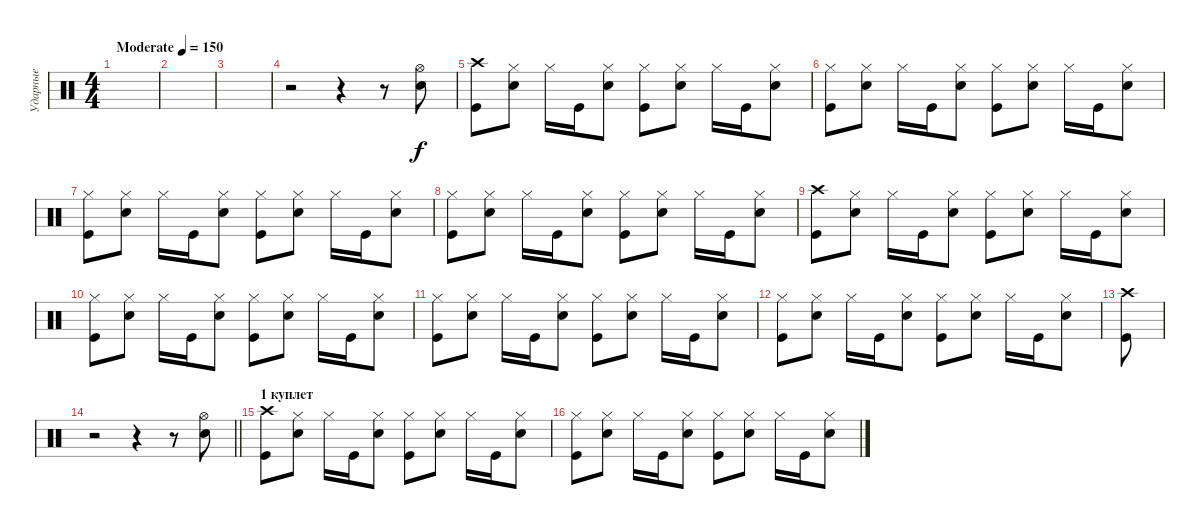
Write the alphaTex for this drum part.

\track ("Ударные" "Ударные") {instrument percussion}
\staff {score}
\articulation defaults
\ts (4 4)
\tempo (150 "Moderate")
\clef neutral
\ks c
|
|
|
r.2 r.4 r.8 ("Hi-Hat (open)" "Snare (hit) 2").8 |
("Crash high (hit)" "Kick (hit)").8 ("Hi-Hat (closed)" "Snare (hit) 2").8 "Hi-Hat (closed)".16 "Kick (hit)".16 ("Hi-Hat (closed)" "Snare (hit) 2").8 ("Hi-Hat (closed)" "Kick (hit)").8 ("Hi-Hat (closed)" "Snare (hit) 2").8 "Hi-Hat (closed)".16 "Kick (hit)".16 ("Hi-Hat (closed)" "Snare (hit) 2").8 |
("Hi-Hat (closed)" "Kick (hit)").8 ("Hi-Hat (closed)" "Snare (hit) 2").8 "Hi-Hat (closed)".16 "Kick (hit)".16 ("Hi-Hat (closed)" "Snare (hit) 2").8 ("Hi-Hat (closed)" "Kick (hit)").8 ("Hi-Hat (closed)" "Snare (hit) 2").8 "Hi-Hat (closed)".16 "Kick (hit)".16 ("Hi-Hat (closed)" "Snare (hit) 2").8 |
("Hi-Hat (closed)" "Kick (hit)").8 ("Hi-Hat (closed)" "Snare (hit) 2").8 "Hi-Hat (closed)".16 "Kick (hit)".16 ("Hi-Hat (closed)" "Snare (hit) 2").8 ("Hi-Hat (closed)" "Kick (hit)").8 ("Hi-Hat (closed)" "Snare (hit) 2").8 "Hi-Hat (closed)".16 "Kick (hit)".16 ("Hi-Hat (closed)" "Snare (hit) 2").8 |
("Hi-Hat (closed)" "Kick (hit)").8 ("Hi-Hat (closed)" "Snare (hit) 2").8 "Hi-Hat (closed)".16 "Kick (hit)".16 ("Hi-Hat (closed)" "Snare (hit) 2").8 ("Hi-Hat (closed)" "Kick (hit)").8 ("Hi-Hat (closed)" "Snare (hit) 2").8 "Hi-Hat (closed)".16 "Kick (hit)".16 ("Hi-Hat (closed)" "Snare (hit) 2").8 |
("Crash high (hit)" "Kick (hit)").8 ("Hi-Hat (closed)" "Snare (hit) 2").8 "Hi-Hat (closed)".16 "Kick (hit)".16 ("Hi-Hat (closed)" "Snare (hit) 2").8 ("Hi-Hat (closed)" "Kick (hit)").8 ("Hi-Hat (closed)" "Snare (hit) 2").8 "Hi-Hat (closed)".16 "Kick (hit)".16 ("Hi-Hat (closed)" "Snare (hit) 2").8 |
("Hi-Hat (closed)" "Kick (hit)").8 ("Hi-Hat (closed)" "Snare (hit) 2").8 "Hi-Hat (closed)".16 "Kick (hit)".16 ("Hi-Hat (closed)" "Snare (hit) 2").8 ("Hi-Hat (closed)" "Kick (hit)").8 ("Hi-Hat (closed)" "Snare (hit) 2").8 "Hi-Hat (closed)".16 "Kick (hit)".16 ("Hi-Hat (closed)" "Snare (hit) 2").8 |
("Hi-Hat (closed)" "Kick (hit)").8 ("Hi-Hat (closed)" "Snare (hit) 2").8 "Hi-Hat (closed)".16 "Kick (hit)".16 ("Hi-Hat (closed)" "Snare (hit) 2").8 ("Hi-Hat (closed)" "Kick (hit)").8 ("Hi-Hat (closed)" "Snare (hit) 2").8 "Hi-Hat (closed)".16 "Kick (hit)".16 ("Hi-Hat (closed)" "Snare (hit) 2").8 |
("Hi-Hat (closed)" "Kick (hit)").8 ("Hi-Hat (closed)" "Snare (hit) 2").8 "Hi-Hat (closed)".16 "Kick (hit)".16 ("Hi-Hat (closed)" "Snare (hit) 2").8 ("Hi-Hat (closed)" "Kick (hit)").8 ("Hi-Hat (closed)" "Snare (hit) 2").8 "Hi-Hat (closed)".16 "Kick (hit)".16 ("Hi-Hat (closed)" "Snare (hit) 2").8 |
("Crash high (hit)" "Kick (hit)").8 |
\barLineRight lightlight
r.2 r.4 r.8 ("Hi-Hat (open)" "Snare (hit) 2").8 |
\section ("" "1 куплет")
("Crash high (hit)" "Kick (hit)").8 ("Hi-Hat (closed)" "Snare (hit) 2").8 "Hi-Hat (closed)".16 "Kick (hit)".16 ("Hi-Hat (closed)" "Snare (hit) 2").8 ("Hi-Hat (closed)" "Kick (hit)").8 ("Hi-Hat (closed)" "Snare (hit) 2").8 "Hi-Hat (closed)".16 "Kick (hit)".16 ("Hi-Hat (closed)" "Snare (hit) 2").8 |
("Hi-Hat (closed)" "Kick (hit)").8 ("Hi-Hat (closed)" "Snare (hit) 2").8 "Hi-Hat (closed)".16 "Kick (hit)".16 ("Hi-Hat (closed)" "Snare (hit) 2").8 ("Hi-Hat (closed)" "Kick (hit)").8 ("Hi-Hat (closed)" "Snare (hit) 2").8 "Hi-Hat (closed)".16 "Kick (hit)".16 ("Hi-Hat (closed)" "Snare (hit) 2").8
